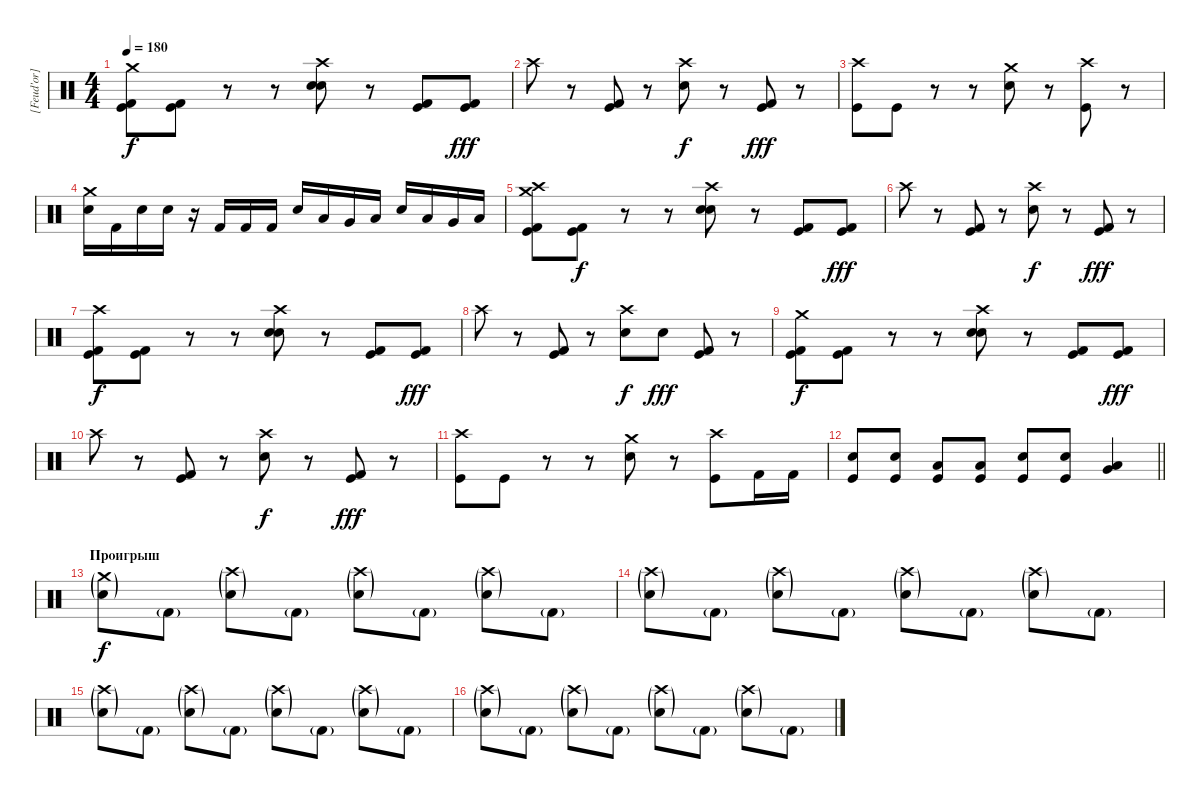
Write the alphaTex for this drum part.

\track ("[Feud'or] - Drums" "[Feud'or] ") {instrument percussion}
\staff {score}
\articulation defaults
\ts (4 4)
\tempo 180
\clef neutral
\ks c
("Crash medium (hit)" "Kick (hit)" "Kick (hit) 2").8{dy f} ("Kick (hit)" "Kick (hit) 2").8 r.8 r.8 ("Crash high (hit)" "Snare (hit) 2" "Electric Snare (hit)").8 r.8 ("Kick (hit)" "Kick (hit) 2").8 ("Kick (hit) 2" "Kick (hit)").8{dy fff} |
"Crash high (hit)".8 r.8 ("Kick (hit)" "Kick (hit) 2").8 r.8 ("Crash high (hit)" "Snare (hit) 2").8{dy f} r.8 ("Kick (hit) 2" "Kick (hit)").8{dy fff} r.8 |
("Crash high (hit)" "Kick (hit)").8 "Kick (hit)".8 r.8 r.8 ("Crash medium (hit)" "Snare (hit) 2").8 r.8 ("Crash high (hit)" "Kick (hit)").8 r.8 |
("Crash medium (hit)" "Snare (hit) 2").16 "Kick (hit) 2".16 "Snare (hit) 2".16 "Snare (hit) 2".16 r.16 "Kick (hit) 2".16 "Kick (hit) 2".16 "Kick (hit) 2".16 "Electric Snare (hit)".16 "Low Tom (hit)".16 "Very Low Tom (hit)".16 "Low Floor Tom (hit)".16 "Electric Snare (hit)".16 "Low Tom (hit)".16 "Very Low Tom (hit)".16 "Low Floor Tom (hit)".16 |
("Crash high (hit)" "Crash medium (hit)" "Kick (hit)" "Kick (hit) 2").8 ("Kick (hit)" "Kick (hit) 2").8{dy f} r.8 r.8 ("Crash high (hit)" "Snare (hit) 2" "Electric Snare (hit)").8 r.8 ("Kick (hit)" "Kick (hit) 2").8 ("Kick (hit) 2" "Kick (hit)").8{dy fff} |
"Crash high (hit)".8 r.8 ("Kick (hit)" "Kick (hit) 2").8 r.8 ("Crash high (hit)" "Snare (hit) 2").8{dy f} r.8 ("Kick (hit) 2" "Kick (hit)").8{dy fff} r.8 |
("Crash high (hit)" "Kick (hit)" "Kick (hit) 2").8{dy f} ("Kick (hit)" "Kick (hit) 2").8 r.8 r.8 ("Crash high (hit)" "Snare (hit) 2" "Electric Snare (hit)").8 r.8 ("Kick (hit)" "Kick (hit) 2").8 ("Kick (hit) 2" "Kick (hit)").8{dy fff} |
"Crash high (hit)".8 r.8 ("Kick (hit)" "Kick (hit) 2").8 r.8 ("Crash high (hit)" "Snare (hit) 2").8{dy f} "Snare (hit) 2".8{dy fff} ("Kick (hit) 2" "Kick (hit)").8 r.8 |
("Crash medium (hit)" "Kick (hit)" "Kick (hit) 2").8{dy f} ("Kick (hit)" "Kick (hit) 2").8 r.8 r.8 ("Crash high (hit)" "Snare (hit) 2" "Electric Snare (hit)").8 r.8 ("Kick (hit)" "Kick (hit) 2").8 ("Kick (hit) 2" "Kick (hit)").8{dy fff} |
"Crash high (hit)".8 r.8 ("Kick (hit)" "Kick (hit) 2").8 r.8 ("Crash high (hit)" "Snare (hit) 2").8{dy f} r.8 ("Kick (hit) 2" "Kick (hit)").8{dy fff} r.8 |
("Crash high (hit)" "Kick (hit)").8 "Kick (hit)".8 r.8 r.8 ("Crash medium (hit)" "Snare (hit) 2").8 r.8 ("Crash high (hit)" "Kick (hit)").8 "Kick (hit) 2".16 "Kick (hit) 2".16 |
\barLineRight lightlight
("Kick (hit)" "Electric Snare (hit)").8 ("Kick (hit)" "Electric Snare (hit)").8 ("Kick (hit)" "Low Tom (hit)").8 ("Kick (hit)" "Low Floor Tom (hit)").8 ("Kick (hit)" "Electric Snare (hit)").8 ("Kick (hit)" "Electric Snare (hit)").8 ("Very Low Tom (hit)" "Low Floor Tom (hit)").4 |
\section ("" "Проигрыш")
("Crash medium (hit)"{g} "Electric Snare (hit)"{g}).8{dy f} "Kick (hit) 2"{g}.8 ("Crash high (hit)"{g} "Electric Snare (hit)"{g}).8 "Kick (hit) 2"{g}.8 ("Crash high (hit)"{g} "Electric Snare (hit)"{g}).8 "Kick (hit) 2"{g}.8 ("Crash high (hit)"{g} "Electric Snare (hit)"{g}).8 "Kick (hit) 2"{g}.8 |
("Crash high (hit)"{g} "Electric Snare (hit)"{g}).8 "Kick (hit) 2"{g}.8 ("Crash high (hit)"{g} "Electric Snare (hit)"{g}).8 "Kick (hit) 2"{g}.8 ("Crash high (hit)"{g} "Electric Snare (hit)"{g}).8 "Kick (hit) 2"{g}.8 ("Crash high (hit)"{g} "Electric Snare (hit)"{g}).8 "Kick (hit) 2"{g}.8 |
("Crash high (hit)"{g} "Electric Snare (hit)"{g}).8 "Kick (hit) 2"{g}.8 ("Crash high (hit)"{g} "Electric Snare (hit)"{g}).8 "Kick (hit) 2"{g}.8 ("Crash high (hit)"{g} "Electric Snare (hit)"{g}).8 "Kick (hit) 2"{g}.8 ("Crash high (hit)"{g} "Electric Snare (hit)"{g}).8 "Kick (hit) 2"{g}.8 |
("Crash high (hit)"{g} "Electric Snare (hit)"{g}).8 "Kick (hit) 2"{g}.8 ("Crash high (hit)"{g} "Electric Snare (hit)"{g}).8 "Kick (hit) 2"{g}.8 ("Crash high (hit)"{g} "Electric Snare (hit)"{g}).8 "Kick (hit) 2"{g}.8 ("Crash high (hit)"{g} "Electric Snare (hit)"{g}).8 "Kick (hit) 2"{g}.8
